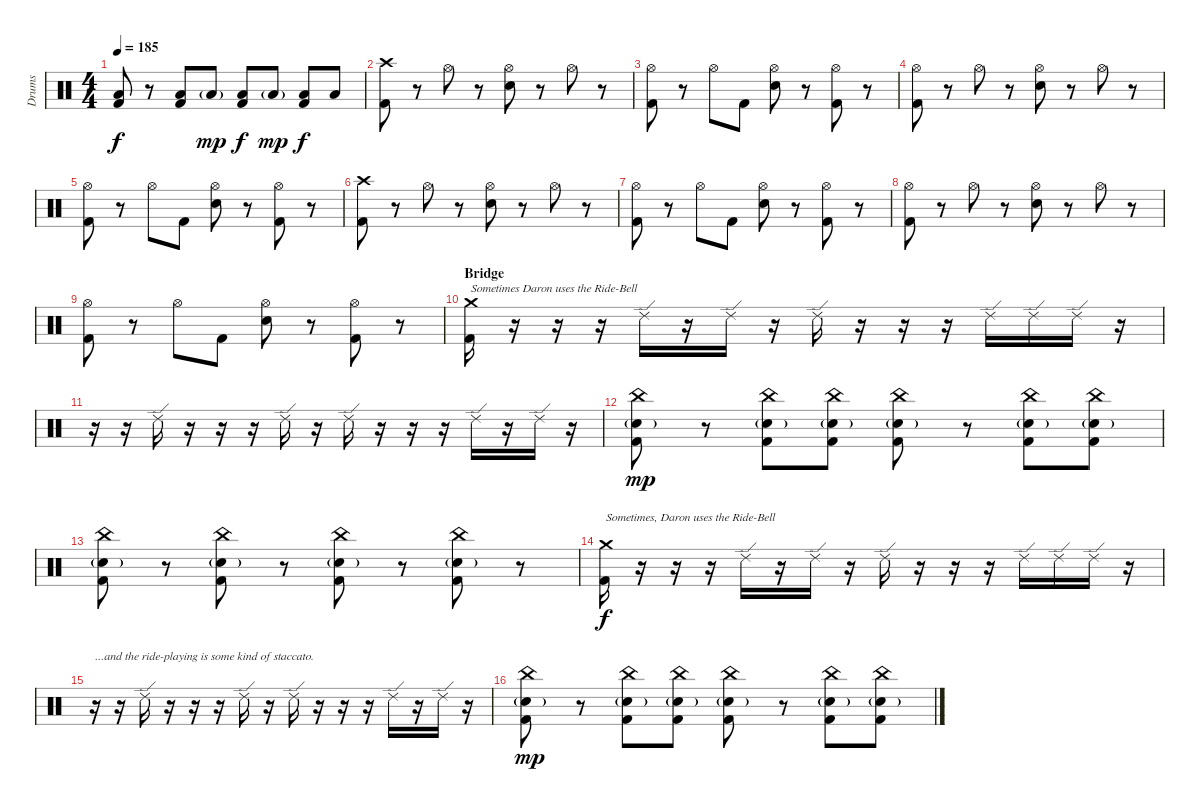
\track ("Drums" "Drums") {instrument percussion}
\staff {score}
\articulation defaults
\ts (4 4)
\tempo 185
\clef neutral
\ks c
("Low Tom (hit)" "Kick (hit) 2").8{dy f} r.8 ("Low Tom (hit)" "Kick (hit) 2").8 "Low Tom (hit)"{g}.8{dy mp} ("Low Tom (hit)" "Kick (hit) 2").8{dy f} "Low Tom (hit)"{g}.8{dy mp} ("Low Tom (hit)" "Kick (hit) 2").8{dy f} "Low Tom (hit)".8 |
("Crash high (hit)" "Kick (hit) 2").8 r.8 "Hi-Hat (open)".8 r.8 ("Hi-Hat (open)" "Electric Snare (hit)").8 r.8 "Hi-Hat (open)".8 r.8 |
("Hi-Hat (open)" "Kick (hit) 2").8 r.8 "Hi-Hat (open)".8 "Kick (hit) 2".8 ("Hi-Hat (open)" "Electric Snare (hit)").8 r.8 ("Hi-Hat (open)" "Kick (hit) 2").8 r.8 |
("Hi-Hat (open)" "Kick (hit) 2").8 r.8 "Hi-Hat (open)".8 r.8 ("Hi-Hat (open)" "Electric Snare (hit)").8 r.8 "Hi-Hat (open)".8 r.8 |
("Hi-Hat (open)" "Kick (hit) 2").8 r.8 "Hi-Hat (open)".8 "Kick (hit) 2".8 ("Hi-Hat (open)" "Electric Snare (hit)").8 r.8 ("Hi-Hat (open)" "Kick (hit) 2").8 r.8 |
("Crash high (hit)" "Kick (hit) 2").8 r.8 "Hi-Hat (open)".8 r.8 ("Hi-Hat (open)" "Electric Snare (hit)").8 r.8 "Hi-Hat (open)".8 r.8 |
("Hi-Hat (open)" "Kick (hit) 2").8 r.8 "Hi-Hat (open)".8 "Kick (hit) 2".8 ("Hi-Hat (open)" "Electric Snare (hit)").8 r.8 ("Hi-Hat (open)" "Kick (hit) 2").8 r.8 |
("Hi-Hat (open)" "Kick (hit) 2").8 r.8 "Hi-Hat (open)".8 r.8 ("Hi-Hat (open)" "Electric Snare (hit)").8 r.8 "Hi-Hat (open)".8 r.8 |
("Hi-Hat (open)" "Kick (hit) 2").8 r.8 "Hi-Hat (open)".8 "Kick (hit) 2".8 ("Hi-Hat (open)" "Electric Snare (hit)").8 r.8 ("Hi-Hat (open)" "Kick (hit) 2").8 r.8 |
\section ("" "Bridge")
("Crash medium (hit)" "Kick (hit) 2").16{txt "Sometimes Daron uses the Ride-Bell"} r.16 r.16 r.16 "Ride (edge) 2".16 r.16 "Ride (edge) 2".16 r.16 "Ride (edge) 2".16 r.16 r.16 r.16 "Ride (edge) 2".16 "Ride (edge) 2".16 "Ride (edge) 2".16 r.16 |
r.16 r.16 "Ride (edge) 2".16 r.16 r.16 r.16 "Ride (edge) 2".16 r.16 "Ride (edge) 2".16 r.16 r.16 r.16 "Ride (edge) 2".16 r.16 "Ride (edge) 2".16 r.16 |
("China (hit)" "Electric Snare (hit)"{g} "Kick (hit) 2").8{dy mp} r.8 ("China (hit)" "Electric Snare (hit)"{g} "Kick (hit) 2").8 ("China (hit)" "Electric Snare (hit)"{g} "Kick (hit) 2").8 ("China (hit)" "Electric Snare (hit)"{g} "Kick (hit) 2").8 r.8 ("China (hit)" "Electric Snare (hit)"{g} "Kick (hit) 2").8 ("China (hit)" "Electric Snare (hit)"{g} "Kick (hit) 2").8 |
("China (hit)" "Electric Snare (hit)"{g} "Kick (hit) 2").8 r.8 ("China (hit)" "Electric Snare (hit)"{g} "Kick (hit) 2").8 r.8 ("China (hit)" "Electric Snare (hit)"{g} "Kick (hit) 2").8 r.8 ("China (hit)" "Electric Snare (hit)"{g} "Kick (hit) 2").8 r.8 |
("Crash medium (hit)" "Kick (hit) 2").16{txt "Sometimes, Daron uses the Ride-Bell" dy f} r.16 r.16 r.16 "Ride (edge) 2".16 r.16 "Ride (edge) 2".16 r.16 "Ride (edge) 2".16 r.16 r.16 r.16 "Ride (edge) 2".16 "Ride (edge) 2".16 "Ride (edge) 2".16 r.16 |
r.16{txt "...and the ride-playing is some kind of staccato."} r.16 "Ride (edge) 2".16 r.16 r.16 r.16 "Ride (edge) 2".16 r.16 "Ride (edge) 2".16 r.16 r.16 r.16 "Ride (edge) 2".16 r.16 "Ride (edge) 2".16 r.16 |
("China (hit)" "Electric Snare (hit)"{g} "Kick (hit) 2").8{dy mp} r.8 ("China (hit)" "Electric Snare (hit)"{g} "Kick (hit) 2").8 ("China (hit)" "Electric Snare (hit)"{g} "Kick (hit) 2").8 ("China (hit)" "Electric Snare (hit)"{g} "Kick (hit) 2").8 r.8 ("China (hit)" "Electric Snare (hit)"{g} "Kick (hit) 2").8 ("China (hit)" "Electric Snare (hit)"{g} "Kick (hit) 2").8
